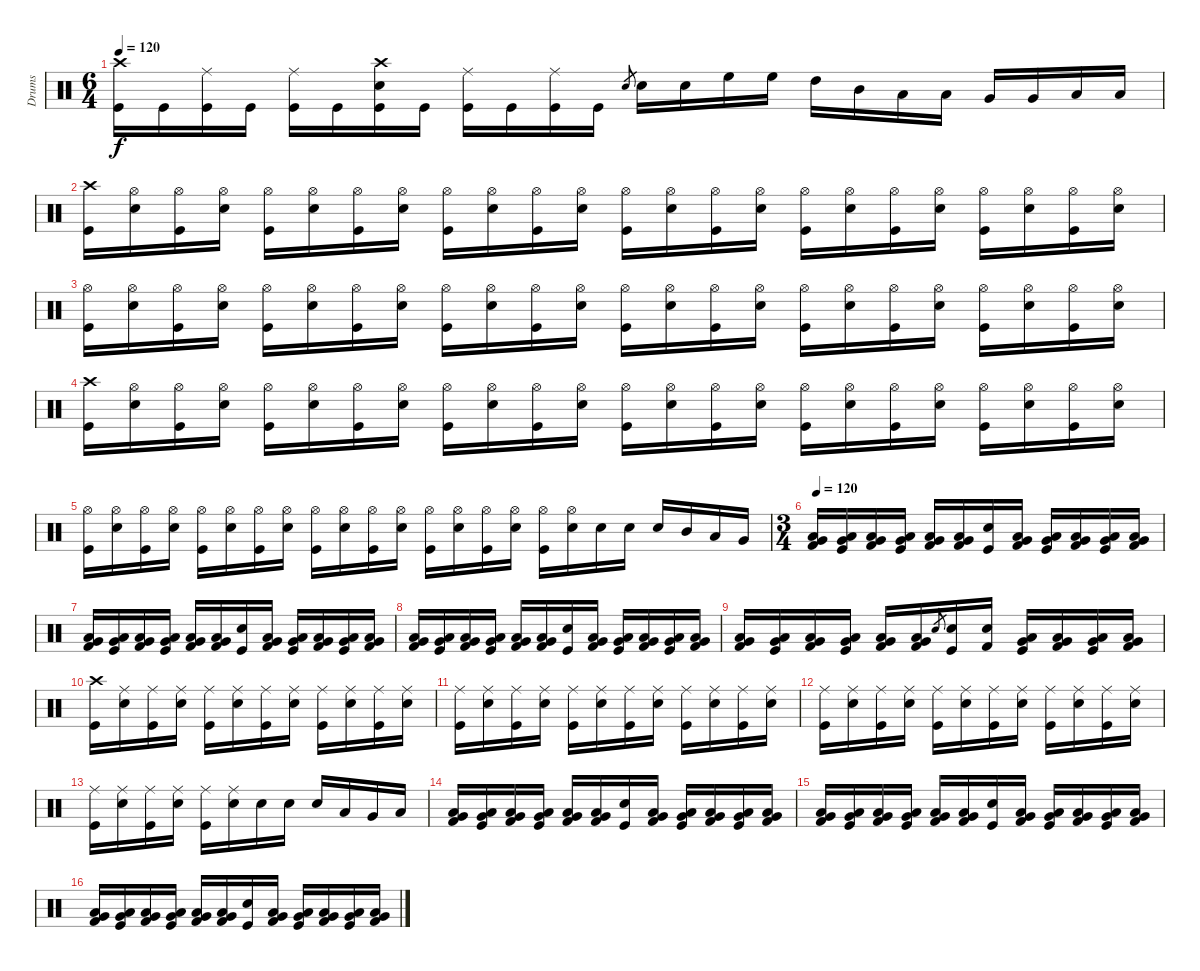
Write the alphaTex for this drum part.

\track ("Drums" "Drums") {instrument percussion}
\staff {score}
\articulation defaults
\ts (6 4)
\tempo 120
\clef neutral
\ks c
("Kick (hit)" "Crash high (hit)").16{dy f} "Kick (hit)".16 ("Kick (hit)" "Ride (middle)").16 "Kick (hit)".16 ("Kick (hit)" "Ride (middle)").16 "Kick (hit)".16 ("Kick (hit)" "Electric Snare (hit)" "Crash high (hit)").16 "Kick (hit)".16 ("Kick (hit)" "Ride (middle)").16 "Kick (hit)".16 ("Kick (hit)" "Ride (middle)").16 "Kick (hit)".16 "Electric Snare (hit)".8{gr} "Electric Snare (hit)".16 "Electric Snare (hit)".16 "High Floor Tom (hit)".16 "High Floor Tom (hit)".16 "High Tom (hit)".16 "Mid Tom (hit)".16 "Low Tom (hit)".16 "Low Tom (hit)".16 "Very Low Tom (hit)".16 "Very Low Tom (hit)".16 "Low Floor Tom (hit)".16 "Low Floor Tom (hit)".16 |
("Kick (hit)" "Crash high (hit)").16 ("Hi-Hat (open)" "Electric Snare (hit)").16 ("Kick (hit)" "Hi-Hat (open)").16 ("Hi-Hat (open)" "Electric Snare (hit)").16 ("Kick (hit)" "Hi-Hat (open)").16 ("Hi-Hat (open)" "Electric Snare (hit)").16 ("Kick (hit)" "Hi-Hat (open)").16 ("Hi-Hat (open)" "Electric Snare (hit)").16 ("Kick (hit)" "Hi-Hat (open)").16 ("Hi-Hat (open)" "Electric Snare (hit)").16 ("Kick (hit)" "Hi-Hat (open)").16 ("Hi-Hat (open)" "Electric Snare (hit)").16 ("Kick (hit)" "Hi-Hat (open)").16 ("Hi-Hat (open)" "Electric Snare (hit)").16 ("Kick (hit)" "Hi-Hat (open)").16 ("Hi-Hat (open)" "Electric Snare (hit)").16 ("Kick (hit)" "Hi-Hat (open)").16 ("Hi-Hat (open)" "Electric Snare (hit)").16 ("Kick (hit)" "Hi-Hat (open)").16 ("Hi-Hat (open)" "Electric Snare (hit)").16 ("Kick (hit)" "Hi-Hat (open)").16 ("Hi-Hat (open)" "Electric Snare (hit)").16 ("Kick (hit)" "Hi-Hat (open)").16 ("Hi-Hat (open)" "Electric Snare (hit)").16 |
("Kick (hit)" "Hi-Hat (open)").16 ("Hi-Hat (open)" "Electric Snare (hit)").16 ("Kick (hit)" "Hi-Hat (open)").16 ("Hi-Hat (open)" "Electric Snare (hit)").16 ("Kick (hit)" "Hi-Hat (open)").16 ("Hi-Hat (open)" "Electric Snare (hit)").16 ("Kick (hit)" "Hi-Hat (open)").16 ("Hi-Hat (open)" "Electric Snare (hit)").16 ("Kick (hit)" "Hi-Hat (open)").16 ("Hi-Hat (open)" "Electric Snare (hit)").16 ("Kick (hit)" "Hi-Hat (open)").16 ("Hi-Hat (open)" "Electric Snare (hit)").16 ("Kick (hit)" "Hi-Hat (open)").16 ("Hi-Hat (open)" "Electric Snare (hit)").16 ("Kick (hit)" "Hi-Hat (open)").16 ("Hi-Hat (open)" "Electric Snare (hit)").16 ("Kick (hit)" "Hi-Hat (open)").16 ("Hi-Hat (open)" "Electric Snare (hit)").16 ("Kick (hit)" "Hi-Hat (open)").16 ("Hi-Hat (open)" "Electric Snare (hit)").16 ("Kick (hit)" "Hi-Hat (open)").16 ("Hi-Hat (open)" "Electric Snare (hit)").16 ("Kick (hit)" "Hi-Hat (open)").16 ("Hi-Hat (open)" "Electric Snare (hit)").16 |
("Kick (hit)" "Crash high (hit)").16 ("Hi-Hat (open)" "Electric Snare (hit)").16 ("Kick (hit)" "Hi-Hat (open)").16 ("Hi-Hat (open)" "Electric Snare (hit)").16 ("Kick (hit)" "Hi-Hat (open)").16 ("Hi-Hat (open)" "Electric Snare (hit)").16 ("Kick (hit)" "Hi-Hat (open)").16 ("Hi-Hat (open)" "Electric Snare (hit)").16 ("Kick (hit)" "Hi-Hat (open)").16 ("Hi-Hat (open)" "Electric Snare (hit)").16 ("Kick (hit)" "Hi-Hat (open)").16 ("Hi-Hat (open)" "Electric Snare (hit)").16 ("Kick (hit)" "Hi-Hat (open)").16 ("Hi-Hat (open)" "Electric Snare (hit)").16 ("Kick (hit)" "Hi-Hat (open)").16 ("Hi-Hat (open)" "Electric Snare (hit)").16 ("Kick (hit)" "Hi-Hat (open)").16 ("Hi-Hat (open)" "Electric Snare (hit)").16 ("Kick (hit)" "Hi-Hat (open)").16 ("Hi-Hat (open)" "Electric Snare (hit)").16 ("Kick (hit)" "Hi-Hat (open)").16 ("Hi-Hat (open)" "Electric Snare (hit)").16 ("Kick (hit)" "Hi-Hat (open)").16 ("Hi-Hat (open)" "Electric Snare (hit)").16 |
("Kick (hit)" "Hi-Hat (open)").16 ("Hi-Hat (open)" "Electric Snare (hit)").16 ("Kick (hit)" "Hi-Hat (open)").16 ("Hi-Hat (open)" "Electric Snare (hit)").16 ("Kick (hit)" "Hi-Hat (open)").16 ("Hi-Hat (open)" "Electric Snare (hit)").16 ("Kick (hit)" "Hi-Hat (open)").16 ("Hi-Hat (open)" "Electric Snare (hit)").16 ("Kick (hit)" "Hi-Hat (open)").16 ("Hi-Hat (open)" "Electric Snare (hit)").16 ("Kick (hit)" "Hi-Hat (open)").16 ("Hi-Hat (open)" "Electric Snare (hit)").16 ("Kick (hit)" "Hi-Hat (open)").16 ("Hi-Hat (open)" "Electric Snare (hit)").16 ("Kick (hit)" "Hi-Hat (open)").16 ("Hi-Hat (open)" "Electric Snare (hit)").16 ("Kick (hit)" "Hi-Hat (open)").16 ("Hi-Hat (open)" "Electric Snare (hit)").16 "Electric Snare (hit)".16 "Electric Snare (hit)".16 "Electric Snare (hit)".16 "Mid Tom (hit)".16 "Low Tom (hit)".16 "Very Low Tom (hit)".16 |
\ts (3 4)
\tempo 120
("Kick (hit) 2" "Very Low Tom (hit)" "Low Floor Tom (hit)").16 ("Kick (hit)" "Low Tom (hit)" "Very Low Tom (hit)").16 ("Kick (hit) 2" "Very Low Tom (hit)" "Low Floor Tom (hit)").16 ("Kick (hit)" "Low Tom (hit)" "Very Low Tom (hit)").16 ("Kick (hit) 2" "Very Low Tom (hit)" "Low Floor Tom (hit)").16 ("Kick (hit) 2" "Low Tom (hit)" "Very Low Tom (hit)").16 ("Kick (hit)" "Electric Snare (hit)").16 ("Kick (hit) 2" "Low Tom (hit)" "Very Low Tom (hit)").16 ("Kick (hit)" "Very Low Tom (hit)" "Low Floor Tom (hit)").16 ("Kick (hit) 2" "Low Tom (hit)" "Very Low Tom (hit)").16 ("Kick (hit)" "Very Low Tom (hit)" "Low Floor Tom (hit)").16 ("Kick (hit) 2" "Low Tom (hit)" "Very Low Tom (hit)").16 |
("Kick (hit) 2" "Very Low Tom (hit)" "Low Floor Tom (hit)").16 ("Kick (hit)" "Low Tom (hit)" "Very Low Tom (hit)").16 ("Kick (hit) 2" "Very Low Tom (hit)" "Low Floor Tom (hit)").16 ("Kick (hit)" "Low Tom (hit)" "Very Low Tom (hit)").16 ("Kick (hit) 2" "Very Low Tom (hit)" "Low Floor Tom (hit)").16 ("Kick (hit) 2" "Low Tom (hit)" "Very Low Tom (hit)").16 ("Kick (hit)" "Electric Snare (hit)").16 ("Kick (hit) 2" "Low Tom (hit)" "Very Low Tom (hit)").16 ("Kick (hit)" "Very Low Tom (hit)" "Low Floor Tom (hit)").16 ("Kick (hit) 2" "Low Tom (hit)" "Very Low Tom (hit)").16 ("Kick (hit)" "Very Low Tom (hit)" "Low Floor Tom (hit)").16 ("Kick (hit) 2" "Low Tom (hit)" "Very Low Tom (hit)").16 |
("Kick (hit) 2" "Very Low Tom (hit)" "Low Floor Tom (hit)").16 ("Kick (hit)" "Low Tom (hit)" "Very Low Tom (hit)").16 ("Kick (hit) 2" "Very Low Tom (hit)" "Low Floor Tom (hit)").16 ("Kick (hit)" "Low Tom (hit)" "Very Low Tom (hit)").16 ("Kick (hit) 2" "Very Low Tom (hit)" "Low Floor Tom (hit)").16 ("Kick (hit) 2" "Low Tom (hit)" "Very Low Tom (hit)").16 ("Kick (hit)" "Electric Snare (hit)").16 ("Kick (hit) 2" "Low Tom (hit)" "Very Low Tom (hit)").16 ("Kick (hit)" "Very Low Tom (hit)" "Low Floor Tom (hit)").16 ("Kick (hit) 2" "Low Tom (hit)" "Very Low Tom (hit)").16 ("Kick (hit)" "Very Low Tom (hit)" "Low Floor Tom (hit)").16 ("Kick (hit) 2" "Low Tom (hit)" "Very Low Tom (hit)").16 |
("Kick (hit) 2" "Very Low Tom (hit)" "Low Floor Tom (hit)").16 ("Kick (hit)" "Low Tom (hit)" "Very Low Tom (hit)").16 ("Kick (hit) 2" "Very Low Tom (hit)" "Low Floor Tom (hit)").16 ("Kick (hit)" "Low Tom (hit)" "Very Low Tom (hit)").16 ("Kick (hit) 2" "Very Low Tom (hit)" "Low Floor Tom (hit)").16 ("Kick (hit) 2" "Low Tom (hit)" "Very Low Tom (hit)").16 "Electric Snare (hit)".8{gr} ("Kick (hit)" "Electric Snare (hit)").16 ("Kick (hit) 2" "Electric Snare (hit)").16 ("Kick (hit)" "Very Low Tom (hit)" "Low Floor Tom (hit)").16 ("Kick (hit) 2" "Low Tom (hit)" "Very Low Tom (hit)").16 ("Kick (hit)" "Very Low Tom (hit)" "Low Floor Tom (hit)").16 ("Kick (hit) 2" "Low Tom (hit)" "Very Low Tom (hit)").16 |
("Kick (hit)" "Crash high (hit)").16 ("Ride (middle)" "Electric Snare (hit)").16 ("Kick (hit)" "Ride (middle)").16 ("Ride (middle)" "Electric Snare (hit)").16 ("Kick (hit)" "Ride (middle)").16 ("Ride (middle)" "Electric Snare (hit)").16 ("Kick (hit)" "Ride (middle)").16 ("Ride (middle)" "Electric Snare (hit)").16 ("Kick (hit)" "Ride (middle)").16 ("Ride (middle)" "Electric Snare (hit)").16 ("Kick (hit)" "Ride (middle)").16 ("Ride (middle)" "Electric Snare (hit)").16 |
("Kick (hit)" "Ride (middle)").16 ("Ride (middle)" "Electric Snare (hit)").16 ("Kick (hit)" "Ride (middle)").16 ("Ride (middle)" "Electric Snare (hit)").16 ("Kick (hit)" "Ride (middle)").16 ("Ride (middle)" "Electric Snare (hit)").16 ("Kick (hit)" "Ride (middle)").16 ("Ride (middle)" "Electric Snare (hit)").16 ("Kick (hit)" "Ride (middle)").16 ("Ride (middle)" "Electric Snare (hit)").16 ("Kick (hit)" "Ride (middle)").16 ("Ride (middle)" "Electric Snare (hit)").16 |
("Kick (hit)" "Ride (middle)").16 ("Ride (middle)" "Electric Snare (hit)").16 ("Kick (hit)" "Ride (middle)").16 ("Ride (middle)" "Electric Snare (hit)").16 ("Kick (hit)" "Ride (middle)").16 ("Ride (middle)" "Electric Snare (hit)").16 ("Kick (hit)" "Ride (middle)").16 ("Ride (middle)" "Electric Snare (hit)").16 ("Kick (hit)" "Ride (middle)").16 ("Ride (middle)" "Electric Snare (hit)").16 ("Kick (hit)" "Ride (middle)").16 ("Ride (middle)" "Electric Snare (hit)").16 |
("Kick (hit)" "Ride (middle)").16 ("Ride (middle)" "Electric Snare (hit)").16 ("Kick (hit)" "Ride (middle)").16 ("Ride (middle)" "Electric Snare (hit)").16 ("Kick (hit)" "Ride (middle)").16 ("Ride (middle)" "Electric Snare (hit)").16 "Electric Snare (hit)".16 "Electric Snare (hit)".16 "Electric Snare (hit)".16 "Low Tom (hit)".16 "Very Low Tom (hit)".16 "Low Floor Tom (hit)".16 |
("Kick (hit) 2" "Very Low Tom (hit)" "Low Floor Tom (hit)").16 ("Kick (hit)" "Low Tom (hit)" "Very Low Tom (hit)").16 ("Kick (hit) 2" "Very Low Tom (hit)" "Low Floor Tom (hit)").16 ("Kick (hit)" "Low Tom (hit)" "Very Low Tom (hit)").16 ("Kick (hit) 2" "Very Low Tom (hit)" "Low Floor Tom (hit)").16 ("Kick (hit) 2" "Low Tom (hit)" "Very Low Tom (hit)").16 ("Kick (hit)" "Electric Snare (hit)").16 ("Kick (hit) 2" "Low Tom (hit)" "Very Low Tom (hit)").16 ("Kick (hit)" "Very Low Tom (hit)" "Low Floor Tom (hit)").16 ("Kick (hit) 2" "Low Tom (hit)" "Very Low Tom (hit)").16 ("Kick (hit)" "Very Low Tom (hit)" "Low Floor Tom (hit)").16 ("Kick (hit) 2" "Low Tom (hit)" "Very Low Tom (hit)").16 |
("Kick (hit) 2" "Very Low Tom (hit)" "Low Floor Tom (hit)").16 ("Kick (hit)" "Low Tom (hit)" "Very Low Tom (hit)").16 ("Kick (hit) 2" "Very Low Tom (hit)" "Low Floor Tom (hit)").16 ("Kick (hit)" "Low Tom (hit)" "Very Low Tom (hit)").16 ("Kick (hit) 2" "Very Low Tom (hit)" "Low Floor Tom (hit)").16 ("Kick (hit) 2" "Low Tom (hit)" "Very Low Tom (hit)").16 ("Kick (hit)" "Electric Snare (hit)").16 ("Kick (hit) 2" "Low Tom (hit)" "Very Low Tom (hit)").16 ("Kick (hit)" "Very Low Tom (hit)" "Low Floor Tom (hit)").16 ("Kick (hit) 2" "Low Tom (hit)" "Very Low Tom (hit)").16 ("Kick (hit)" "Very Low Tom (hit)" "Low Floor Tom (hit)").16 ("Kick (hit) 2" "Low Tom (hit)" "Very Low Tom (hit)").16 |
("Kick (hit) 2" "Very Low Tom (hit)" "Low Floor Tom (hit)").16 ("Kick (hit)" "Low Tom (hit)" "Very Low Tom (hit)").16 ("Kick (hit) 2" "Very Low Tom (hit)" "Low Floor Tom (hit)").16 ("Kick (hit)" "Low Tom (hit)" "Very Low Tom (hit)").16 ("Kick (hit) 2" "Very Low Tom (hit)" "Low Floor Tom (hit)").16 ("Kick (hit) 2" "Low Tom (hit)" "Very Low Tom (hit)").16 ("Kick (hit)" "Electric Snare (hit)").16 ("Kick (hit) 2" "Low Tom (hit)" "Very Low Tom (hit)").16 ("Kick (hit)" "Very Low Tom (hit)" "Low Floor Tom (hit)").16 ("Kick (hit) 2" "Low Tom (hit)" "Very Low Tom (hit)").16 ("Kick (hit)" "Very Low Tom (hit)" "Low Floor Tom (hit)").16 ("Kick (hit) 2" "Low Tom (hit)" "Very Low Tom (hit)").16
